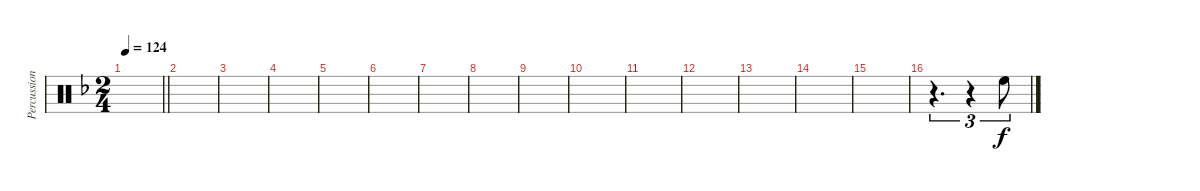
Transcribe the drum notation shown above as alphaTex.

\track ("Percussions" "Percussion") {instrument percussion}
\staff {score}
\articulation defaults
\ts (2 4)
\tempo 124
\clef neutral
\barLineRight lightlight
\ks dminor
|
|
|
|
|
|
|
|
|
|
|
|
|
|
|
r.4{d tu (3 2) volume 13 balance 8} r.4{tu (3 2)} "High Floor Tom (hit)".8{tu (3 2)}
